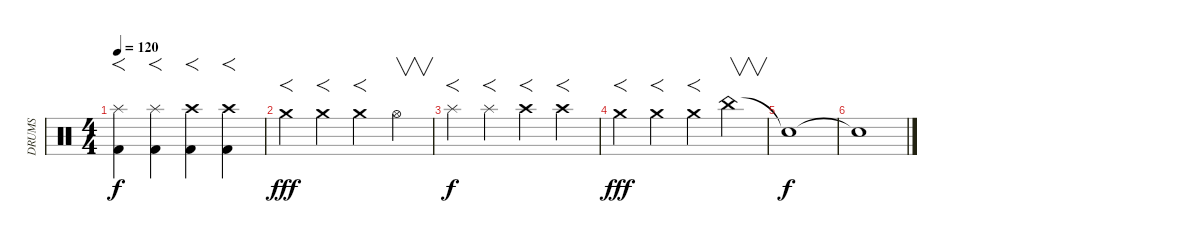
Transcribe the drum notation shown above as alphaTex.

\track ("DRUMS" "DRUMS") {instrument percussion}
\staff {score}
\articulation defaults
\ts (4 4)
\tempo 120
\clef neutral
\ks c
("Splash (hit)" "Kick (hit) 2").4{f dy f} ("Splash (hit)" "Kick (hit) 2").4{f} ("Crash high (hit)" "Kick (hit) 2").4{f} ("Crash high (hit)" "Kick (hit) 2").4{f} |
"Crash medium (hit)".4{f dy fff} "Crash medium (hit)".4{f} "Crash medium (hit)".4{f} "Hi-Hat (open)".4{v} |
"Splash (hit)".4{f dy f} "Splash (hit)".4{f} "Crash high (hit)".4{f} "Crash high (hit)".4{f} |
"Crash medium (hit)".4{f dy fff} "Crash medium (hit)".4{f} "Crash medium (hit)".4{f} "China (hit)".4{v} |
"Snare (hit)"{t}.1{dy f} |
"Snare (hit)"{t}.1
